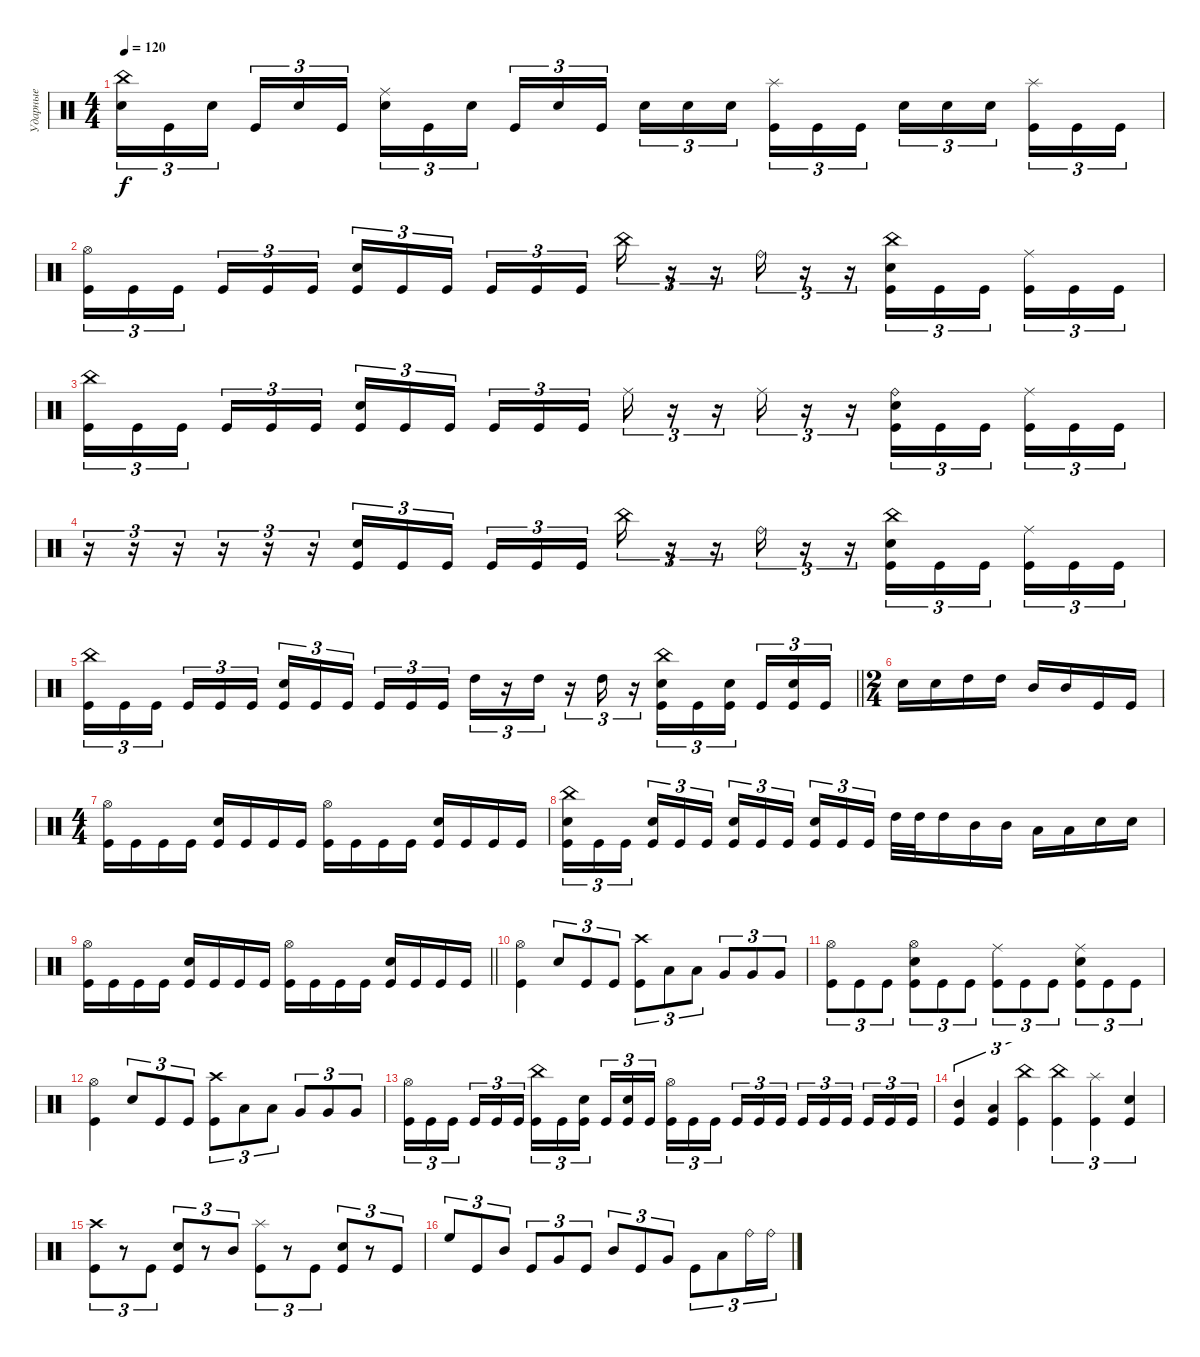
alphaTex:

\track ("Ударные" "Ударные") {instrument percussion}
\staff {score}
\articulation defaults
\ts (4 4)
\tempo 120
\clef neutral
\ks c
("China (hit)" "Electric Snare (hit)").16{tu (3 2) dy f} "Kick (hit)".16{tu (3 2)} "Electric Snare (hit)".16{tu (3 2) beam splitsecondary} "Kick (hit)".16{tu (3 2)} "Electric Snare (hit)".16{tu (3 2)} "Kick (hit)".16{tu (3 2)} ("Ride (middle)" "Electric Snare (hit)").16{tu (3 2)} "Kick (hit)".16{tu (3 2)} "Electric Snare (hit)".16{tu (3 2) beam splitsecondary} "Kick (hit)".16{tu (3 2)} "Electric Snare (hit)".16{tu (3 2)} "Kick (hit)".16{tu (3 2)} "Electric Snare (hit)".16{tu (3 2)} "Electric Snare (hit)".16{tu (3 2)} "Electric Snare (hit)".16{tu (3 2) beam splitsecondary} ("Splash (hit)" "Kick (hit)").16{tu (3 2)} "Kick (hit)".16{tu (3 2)} "Kick (hit)".16{tu (3 2)} "Electric Snare (hit)".16{tu (3 2)} "Electric Snare (hit)".16{tu (3 2)} "Electric Snare (hit)".16{tu (3 2) beam splitsecondary} ("Splash (hit)" "Kick (hit)").16{tu (3 2)} "Kick (hit)".16{tu (3 2)} "Kick (hit)".16{tu (3 2)} |
("Hi-Hat (open)" "Kick (hit)").16{tu (3 2)} "Kick (hit)".16{tu (3 2)} "Kick (hit)".16{tu (3 2) beam splitsecondary} "Kick (hit)".16{tu (3 2)} "Kick (hit)".16{tu (3 2)} "Kick (hit)".16{tu (3 2)} ("Electric Snare (hit)" "Kick (hit)").16{tu (3 2)} "Kick (hit)".16{tu (3 2)} "Kick (hit)".16{tu (3 2) beam splitsecondary} "Kick (hit)".16{tu (3 2)} "Kick (hit)".16{tu (3 2)} "Kick (hit)".16{tu (3 2)} "China (hit)".16{tu (3 2)} r.16{tu (3 2)} r.16{tu (3 2)} "Ride (bell)".16{tu (3 2)} r.16{tu (3 2)} r.16{tu (3 2)} ("China (hit)" "Electric Snare (hit)" "Kick (hit)").16{tu (3 2)} "Kick (hit)".16{tu (3 2)} "Kick (hit)".16{tu (3 2) beam splitsecondary} ("Ride (middle)" "Kick (hit)").16{tu (3 2)} "Kick (hit)".16{tu (3 2)} "Kick (hit)".16{tu (3 2)} |
("China (hit)" "Kick (hit)").16{tu (3 2)} "Kick (hit)".16{tu (3 2)} "Kick (hit)".16{tu (3 2) beam splitsecondary} "Kick (hit)".16{tu (3 2)} "Kick (hit)".16{tu (3 2)} "Kick (hit)".16{tu (3 2)} ("Electric Snare (hit)" "Kick (hit)").16{tu (3 2)} "Kick (hit)".16{tu (3 2)} "Kick (hit)".16{tu (3 2) beam splitsecondary} "Kick (hit)".16{tu (3 2)} "Kick (hit)".16{tu (3 2)} "Kick (hit)".16{tu (3 2)} "Ride (middle)".16{tu (3 2)} r.16{tu (3 2)} r.16{tu (3 2)} "Ride (middle)".16{tu (3 2)} r.16{tu (3 2)} r.16{tu (3 2)} ("Ride (bell)" "Electric Snare (hit)" "Kick (hit)").16{tu (3 2)} "Kick (hit)".16{tu (3 2)} "Kick (hit)".16{tu (3 2) beam splitsecondary} ("Ride (middle)" "Kick (hit)").16{tu (3 2)} "Kick (hit)".16{tu (3 2)} "Kick (hit)".16{tu (3 2)} |
r.16{tu (3 2)} r.16{tu (3 2)} r.16{tu (3 2)} r.16{tu (3 2)} r.16{tu (3 2)} r.16{tu (3 2)} ("Electric Snare (hit)" "Kick (hit)").16{tu (3 2)} "Kick (hit)".16{tu (3 2)} "Kick (hit)".16{tu (3 2) beam splitsecondary} "Kick (hit)".16{tu (3 2)} "Kick (hit)".16{tu (3 2)} "Kick (hit)".16{tu (3 2)} "China (hit)".16{tu (3 2)} r.16{tu (3 2)} r.16{tu (3 2)} "Ride (bell)".16{tu (3 2)} r.16{tu (3 2)} r.16{tu (3 2)} ("China (hit)" "Electric Snare (hit)" "Kick (hit)").16{tu (3 2)} "Kick (hit)".16{tu (3 2)} "Kick (hit)".16{tu (3 2) beam splitsecondary} ("Ride (middle)" "Kick (hit)").16{tu (3 2)} "Kick (hit)".16{tu (3 2)} "Kick (hit)".16{tu (3 2)} |
\barLineRight lightlight
("China (hit)" "Kick (hit)").16{tu (3 2)} "Kick (hit)".16{tu (3 2)} "Kick (hit)".16{tu (3 2) beam splitsecondary} "Kick (hit)".16{tu (3 2)} "Kick (hit)".16{tu (3 2)} "Kick (hit)".16{tu (3 2)} ("Electric Snare (hit)" "Kick (hit)").16{tu (3 2)} "Kick (hit)".16{tu (3 2)} "Kick (hit)".16{tu (3 2) beam splitsecondary} "Kick (hit)".16{tu (3 2)} "Kick (hit)".16{tu (3 2)} "Kick (hit)".16{tu (3 2)} "High Tom (hit)".16{tu (3 2)} r.16{tu (3 2)} "High Tom (hit)".16{tu (3 2)} r.16{tu (3 2)} "High Tom (hit)".16{tu (3 2)} r.16{tu (3 2)} ("China (hit)" "Electric Snare (hit)" "Kick (hit)").16{tu (3 2)} "Kick (hit)".16{tu (3 2)} ("Electric Snare (hit)" "Kick (hit)").16{tu (3 2) beam splitsecondary} "Kick (hit)".16{tu (3 2)} ("Electric Snare (hit)" "Kick (hit)").16{tu (3 2)} "Kick (hit)".16{tu (3 2)} |
\ts (2 4)
\section ("" " ")
"Electric Snare (hit)".16 "Electric Snare (hit)".16 "High Tom (hit)".16 "High Tom (hit)".16 "Mid Tom (hit)".16 "Mid Tom (hit)".16 "Kick (hit)".16 "Kick (hit)".16 |
\ts (4 4)
("Hi-Hat (open)" "Kick (hit)").16 "Kick (hit)".16 "Kick (hit)".16 "Kick (hit)".16 ("Electric Snare (hit)" "Kick (hit)").16 "Kick (hit)".16 "Kick (hit)".16 "Kick (hit)".16 ("Hi-Hat (open)" "Kick (hit)").16 "Kick (hit)".16 "Kick (hit)".16 "Kick (hit)".16 ("Electric Snare (hit)" "Kick (hit)").16 "Kick (hit)".16 "Kick (hit)".16 "Kick (hit)".16 |
("China (hit)" "Electric Snare (hit)" "Kick (hit)").16{tu (3 2)} "Kick (hit)".16{tu (3 2)} "Kick (hit)".16{tu (3 2) beam splitsecondary} ("Electric Snare (hit)" "Kick (hit)").16{tu (3 2)} "Kick (hit)".16{tu (3 2)} "Kick (hit)".16{tu (3 2)} ("Electric Snare (hit)" "Kick (hit)").16{tu (3 2)} "Kick (hit)".16{tu (3 2)} "Kick (hit)".16{tu (3 2) beam splitsecondary} ("Electric Snare (hit)" "Kick (hit)").16{tu (3 2)} "Kick (hit)".16{tu (3 2)} "Kick (hit)".16{tu (3 2)} "High Tom (hit)".32 "High Tom (hit)".32 "High Tom (hit)".16 "Mid Tom (hit)".16 "Mid Tom (hit)".16 "Low Tom (hit)".16 "Low Tom (hit)".16 "Electric Snare (hit)".16 "Electric Snare (hit)".16 |
\barLineRight lightlight
("Hi-Hat (open)" "Kick (hit)").16 "Kick (hit)".16 "Kick (hit)".16 "Kick (hit)".16 ("Electric Snare (hit)" "Kick (hit)").16 "Kick (hit)".16 "Kick (hit)".16 "Kick (hit)".16 ("Hi-Hat (open)" "Kick (hit)").16 "Kick (hit)".16 "Kick (hit)".16 "Kick (hit)".16 ("Electric Snare (hit)" "Kick (hit)").16 "Kick (hit)".16 "Kick (hit)".16 "Kick (hit)".16 |
\section ("" " ")
("Hi-Hat (open)" "Kick (hit)").4 "Electric Snare (hit)".8{tu (3 2)} "Kick (hit)".8{tu (3 2)} "Kick (hit)".8{tu (3 2)} ("Crash high (hit)" "Kick (hit)").8{tu (3 2)} "Low Tom (hit)".8{tu (3 2)} "Low Tom (hit)".8{tu (3 2)} "Very Low Tom (hit)".8{tu (3 2)} "Very Low Tom (hit)".8{tu (3 2)} "Very Low Tom (hit)".8{tu (3 2)} |
("Hi-Hat (open)" "Kick (hit)").8{tu (3 2)} "Kick (hit)".8{tu (3 2)} "Kick (hit)".8{tu (3 2)} ("Hi-Hat (open)" "Electric Snare (hit)" "Kick (hit)").8{tu (3 2)} "Kick (hit)".8{tu (3 2)} "Kick (hit)".8{tu (3 2)} ("Ride (middle)" "Kick (hit)").8{tu (3 2)} "Kick (hit)".8{tu (3 2)} "Kick (hit)".8{tu (3 2)} ("Ride (middle)" "Electric Snare (hit)" "Kick (hit)").8{tu (3 2)} "Kick (hit)".8{tu (3 2)} "Kick (hit)".8{tu (3 2)} |
("Hi-Hat (open)" "Kick (hit)").4 "Electric Snare (hit)".8{tu (3 2)} "Kick (hit)".8{tu (3 2)} "Kick (hit)".8{tu (3 2)} ("Crash high (hit)" "Kick (hit)").8{tu (3 2)} "Low Tom (hit)".8{tu (3 2)} "Low Tom (hit)".8{tu (3 2)} "Very Low Tom (hit)".8{tu (3 2)} "Very Low Tom (hit)".8{tu (3 2)} "Very Low Tom (hit)".8{tu (3 2)} |
("Hi-Hat (open)" "Kick (hit)").16{tu (3 2)} "Kick (hit)".16{tu (3 2)} "Kick (hit)".16{tu (3 2) beam splitsecondary} "Kick (hit)".16{tu (3 2)} "Kick (hit)".16{tu (3 2)} "Kick (hit)".16{tu (3 2)} ("China (hit)" "Kick (hit)").16{tu (3 2)} "Kick (hit)".16{tu (3 2)} ("Electric Snare (hit)" "Kick (hit)").16{tu (3 2) beam splitsecondary} "Kick (hit)".16{tu (3 2)} ("Electric Snare (hit)" "Kick (hit)").16{tu (3 2)} "Kick (hit)".16{tu (3 2)} ("Hi-Hat (open)" "Kick (hit)").16{tu (3 2)} "Kick (hit)".16{tu (3 2)} "Kick (hit)".16{tu (3 2) beam splitsecondary} "Kick (hit)".16{tu (3 2)} "Kick (hit)".16{tu (3 2)} "Kick (hit)".16{tu (3 2)} "Kick (hit)".16{tu (3 2)} "Kick (hit)".16{tu (3 2)} "Kick (hit)".16{tu (3 2) beam splitsecondary} "Kick (hit)".16{tu (3 2)} "Kick (hit)".16{tu (3 2)} "Kick (hit)".16{tu (3 2)} |
("Mid Tom (hit)" "Kick (hit)").4{tu (3 2)} ("Low Floor Tom (hit)" "Kick (hit)").4{tu (3 2)} ("China (hit)" "Kick (hit)").4{tu (3 2)} ("China (hit)" "Kick (hit)").4{tu (3 2)} ("Splash (hit)" "Kick (hit)").4{tu (3 2)} ("Electric Snare (hit)" "Kick (hit)").4{tu (3 2)} |
("Kick (hit)" "Crash high (hit)").8{tu (3 2)} r.8{tu (3 2)} "Kick (hit)".8{tu (3 2)} ("Kick (hit)" "Electric Snare (hit)").8{tu (3 2)} r.8{tu (3 2)} "Mid Tom (hit)".8{tu (3 2)} ("Kick (hit)" "Splash (hit)").8{tu (3 2)} r.8{tu (3 2)} "Kick (hit)".8{tu (3 2)} ("Kick (hit)" "Electric Snare (hit)").8{tu (3 2)} r.8{tu (3 2)} "Kick (hit)".8{tu (3 2)} |
"High Floor Tom (hit)".8{tu (3 2)} "Kick (hit)".8{tu (3 2)} "Mid Tom (hit)".8{tu (3 2)} "Kick (hit)".8{tu (3 2)} "Very Low Tom (hit)".8{tu (3 2)} "Kick (hit)".8{tu (3 2)} "Mid Tom (hit)".8{tu (3 2)} "Kick (hit)".8{tu (3 2)} "Very Low Tom (hit)".8{tu (3 2)} "Kick (hit)".8{tu (3 2)} "Low Floor Tom (hit)".8{tu (3 2)} "Ride (bell)".16{tu (3 2)} "Ride (bell)".16{tu (3 2)}
